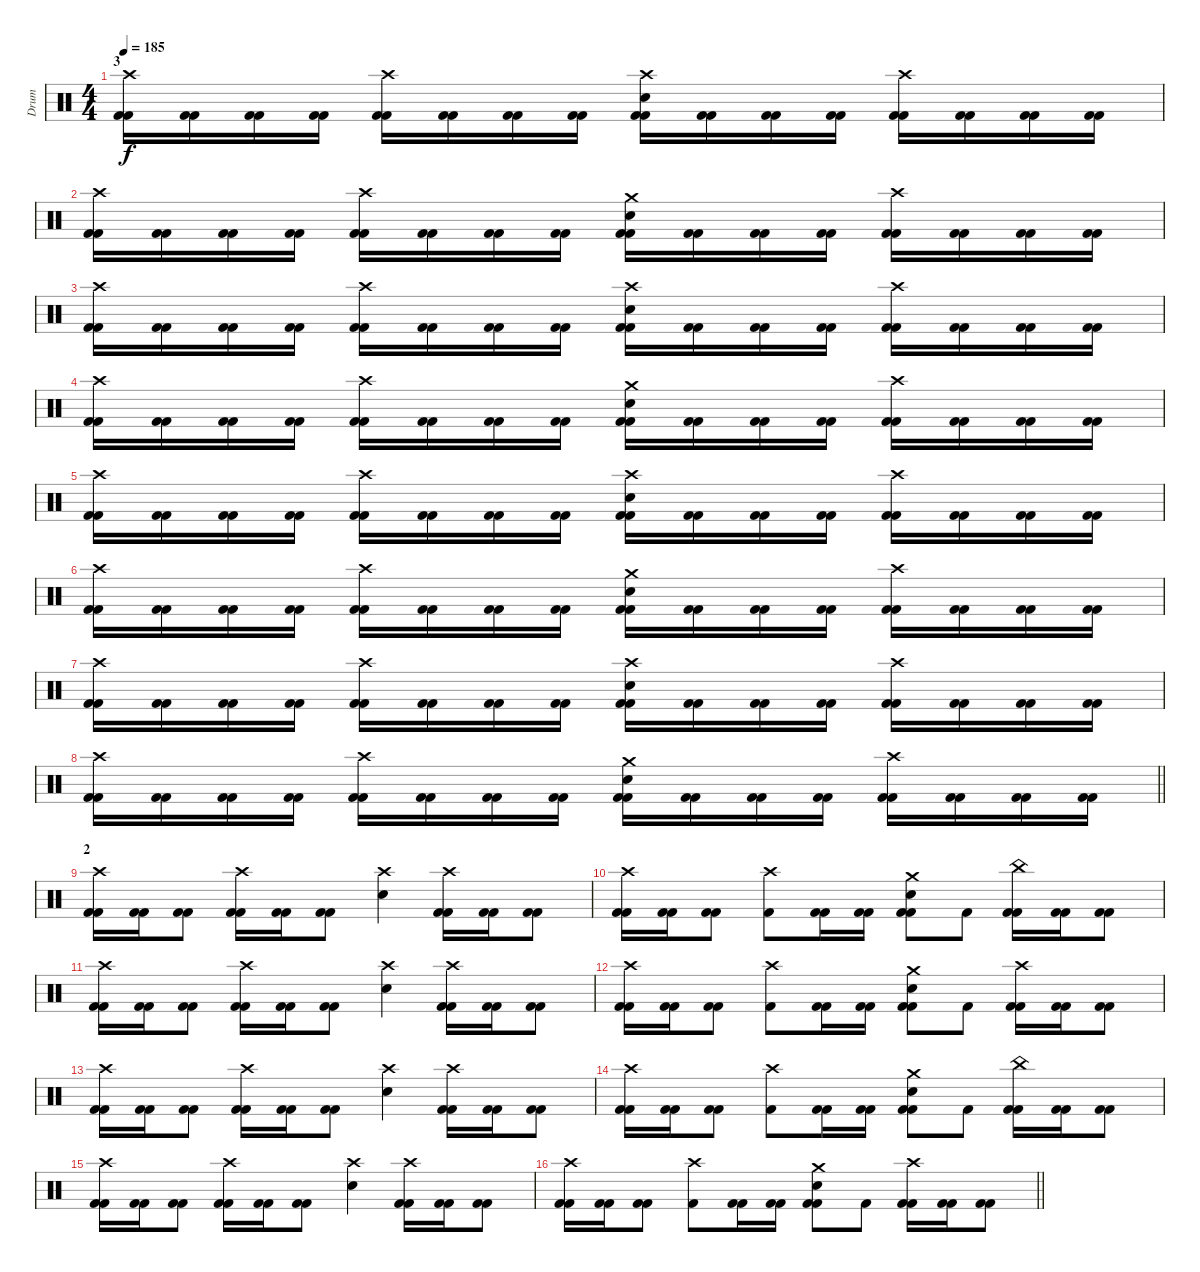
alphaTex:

\track ("Drum" "Drum") {instrument percussion}
\staff {score}
\articulation defaults
\ts (4 4)
\section ("" "3")
\tempo 185
\clef neutral
\ks c
("Crash high (hit)" "Kick (hit) 2" "Kick (hit) 2").16{dy f} ("Kick (hit) 2" "Kick (hit) 2").16 ("Kick (hit) 2" "Kick (hit) 2").16 ("Kick (hit) 2" "Kick (hit) 2").16 ("Crash high (hit)" "Kick (hit) 2" "Kick (hit) 2").16 ("Kick (hit) 2" "Kick (hit) 2").16 ("Kick (hit) 2" "Kick (hit) 2").16 ("Kick (hit) 2" "Kick (hit) 2").16 ("Crash high (hit)" "Electric Snare (hit)" "Kick (hit) 2" "Kick (hit) 2").16 ("Kick (hit) 2" "Kick (hit) 2").16 ("Kick (hit) 2" "Kick (hit) 2").16 ("Kick (hit) 2" "Kick (hit) 2").16 ("Crash high (hit)" "Kick (hit) 2" "Kick (hit) 2").16 ("Kick (hit) 2" "Kick (hit) 2").16 ("Kick (hit) 2" "Kick (hit) 2").16 ("Kick (hit) 2" "Kick (hit) 2").16 |
("Crash high (hit)" "Kick (hit) 2" "Kick (hit) 2").16 ("Kick (hit) 2" "Kick (hit) 2").16 ("Kick (hit) 2" "Kick (hit) 2").16 ("Kick (hit) 2" "Kick (hit) 2").16 ("Crash high (hit)" "Kick (hit) 2" "Kick (hit) 2").16 ("Kick (hit) 2" "Kick (hit) 2").16 ("Kick (hit) 2" "Kick (hit) 2").16 ("Kick (hit) 2" "Kick (hit) 2").16 ("Crash medium (hit)" "Electric Snare (hit)" "Kick (hit) 2" "Kick (hit) 2").16 ("Kick (hit) 2" "Kick (hit) 2").16 ("Kick (hit) 2" "Kick (hit) 2").16 ("Kick (hit) 2" "Kick (hit) 2").16 ("Crash high (hit)" "Kick (hit) 2" "Kick (hit) 2").16 ("Kick (hit) 2" "Kick (hit) 2").16 ("Kick (hit) 2" "Kick (hit) 2").16 ("Kick (hit) 2" "Kick (hit) 2").16 |
("Crash high (hit)" "Kick (hit) 2" "Kick (hit) 2").16 ("Kick (hit) 2" "Kick (hit) 2").16 ("Kick (hit) 2" "Kick (hit) 2").16 ("Kick (hit) 2" "Kick (hit) 2").16 ("Crash high (hit)" "Kick (hit) 2" "Kick (hit) 2").16 ("Kick (hit) 2" "Kick (hit) 2").16 ("Kick (hit) 2" "Kick (hit) 2").16 ("Kick (hit) 2" "Kick (hit) 2").16 ("Crash high (hit)" "Electric Snare (hit)" "Kick (hit) 2" "Kick (hit) 2").16 ("Kick (hit) 2" "Kick (hit) 2").16 ("Kick (hit) 2" "Kick (hit) 2").16 ("Kick (hit) 2" "Kick (hit) 2").16 ("Crash high (hit)" "Kick (hit) 2" "Kick (hit) 2").16 ("Kick (hit) 2" "Kick (hit) 2").16 ("Kick (hit) 2" "Kick (hit) 2").16 ("Kick (hit) 2" "Kick (hit) 2").16 |
("Crash high (hit)" "Kick (hit) 2" "Kick (hit) 2").16 ("Kick (hit) 2" "Kick (hit) 2").16 ("Kick (hit) 2" "Kick (hit) 2").16 ("Kick (hit) 2" "Kick (hit) 2").16 ("Crash high (hit)" "Kick (hit) 2" "Kick (hit) 2").16 ("Kick (hit) 2" "Kick (hit) 2").16 ("Kick (hit) 2" "Kick (hit) 2").16 ("Kick (hit) 2" "Kick (hit) 2").16 ("Crash medium (hit)" "Electric Snare (hit)" "Kick (hit) 2" "Kick (hit) 2").16 ("Kick (hit) 2" "Kick (hit) 2").16 ("Kick (hit) 2" "Kick (hit) 2").16 ("Kick (hit) 2" "Kick (hit) 2").16 ("Crash high (hit)" "Kick (hit) 2" "Kick (hit) 2").16 ("Kick (hit) 2" "Kick (hit) 2").16 ("Kick (hit) 2" "Kick (hit) 2").16 ("Kick (hit) 2" "Kick (hit) 2").16 |
("Crash high (hit)" "Kick (hit) 2" "Kick (hit) 2").16 ("Kick (hit) 2" "Kick (hit) 2").16 ("Kick (hit) 2" "Kick (hit) 2").16 ("Kick (hit) 2" "Kick (hit) 2").16 ("Crash high (hit)" "Kick (hit) 2" "Kick (hit) 2").16 ("Kick (hit) 2" "Kick (hit) 2").16 ("Kick (hit) 2" "Kick (hit) 2").16 ("Kick (hit) 2" "Kick (hit) 2").16 ("Crash high (hit)" "Electric Snare (hit)" "Kick (hit) 2" "Kick (hit) 2").16 ("Kick (hit) 2" "Kick (hit) 2").16 ("Kick (hit) 2" "Kick (hit) 2").16 ("Kick (hit) 2" "Kick (hit) 2").16 ("Crash high (hit)" "Kick (hit) 2" "Kick (hit) 2").16 ("Kick (hit) 2" "Kick (hit) 2").16 ("Kick (hit) 2" "Kick (hit) 2").16 ("Kick (hit) 2" "Kick (hit) 2").16 |
("Crash high (hit)" "Kick (hit) 2" "Kick (hit) 2").16 ("Kick (hit) 2" "Kick (hit) 2").16 ("Kick (hit) 2" "Kick (hit) 2").16 ("Kick (hit) 2" "Kick (hit) 2").16 ("Crash high (hit)" "Kick (hit) 2" "Kick (hit) 2").16 ("Kick (hit) 2" "Kick (hit) 2").16 ("Kick (hit) 2" "Kick (hit) 2").16 ("Kick (hit) 2" "Kick (hit) 2").16 ("Crash medium (hit)" "Electric Snare (hit)" "Kick (hit) 2" "Kick (hit) 2").16 ("Kick (hit) 2" "Kick (hit) 2").16 ("Kick (hit) 2" "Kick (hit) 2").16 ("Kick (hit) 2" "Kick (hit) 2").16 ("Crash high (hit)" "Kick (hit) 2" "Kick (hit) 2").16 ("Kick (hit) 2" "Kick (hit) 2").16 ("Kick (hit) 2" "Kick (hit) 2").16 ("Kick (hit) 2" "Kick (hit) 2").16 |
("Crash high (hit)" "Kick (hit) 2" "Kick (hit) 2").16 ("Kick (hit) 2" "Kick (hit) 2").16 ("Kick (hit) 2" "Kick (hit) 2").16 ("Kick (hit) 2" "Kick (hit) 2").16 ("Crash high (hit)" "Kick (hit) 2" "Kick (hit) 2").16 ("Kick (hit) 2" "Kick (hit) 2").16 ("Kick (hit) 2" "Kick (hit) 2").16 ("Kick (hit) 2" "Kick (hit) 2").16 ("Crash high (hit)" "Electric Snare (hit)" "Kick (hit) 2" "Kick (hit) 2").16 ("Kick (hit) 2" "Kick (hit) 2").16 ("Kick (hit) 2" "Kick (hit) 2").16 ("Kick (hit) 2" "Kick (hit) 2").16 ("Crash high (hit)" "Kick (hit) 2" "Kick (hit) 2").16 ("Kick (hit) 2" "Kick (hit) 2").16 ("Kick (hit) 2" "Kick (hit) 2").16 ("Kick (hit) 2" "Kick (hit) 2").16 |
\barLineRight lightlight
("Crash high (hit)" "Kick (hit) 2" "Kick (hit) 2").16 ("Kick (hit) 2" "Kick (hit) 2").16 ("Kick (hit) 2" "Kick (hit) 2").16 ("Kick (hit) 2" "Kick (hit) 2").16 ("Crash high (hit)" "Kick (hit) 2" "Kick (hit) 2").16 ("Kick (hit) 2" "Kick (hit) 2").16 ("Kick (hit) 2" "Kick (hit) 2").16 ("Kick (hit) 2" "Kick (hit) 2").16 ("Crash medium (hit)" "Electric Snare (hit)" "Kick (hit) 2" "Kick (hit) 2").16 ("Kick (hit) 2" "Kick (hit) 2").16 ("Kick (hit) 2" "Kick (hit) 2").16 ("Kick (hit) 2" "Kick (hit) 2").16 ("Crash high (hit)" "Kick (hit) 2" "Kick (hit) 2").16 ("Kick (hit) 2" "Kick (hit) 2").16 ("Kick (hit) 2" "Kick (hit) 2").16 ("Kick (hit) 2" "Kick (hit) 2").16 |
\section ("" "2")
("Crash high (hit)" "Kick (hit) 2" "Kick (hit) 2").16 ("Kick (hit) 2" "Kick (hit) 2").16 ("Kick (hit) 2" "Kick (hit) 2").8 ("Crash high (hit)" "Kick (hit) 2" "Kick (hit) 2").16 ("Kick (hit) 2" "Kick (hit) 2").16 ("Kick (hit) 2" "Kick (hit) 2").8 ("Crash high (hit)" "Electric Snare (hit)").4 ("Crash high (hit)" "Kick (hit) 2" "Kick (hit) 2").16 ("Kick (hit) 2" "Kick (hit) 2").16 ("Kick (hit) 2" "Kick (hit) 2").8 |
("Crash high (hit)" "Kick (hit) 2" "Kick (hit) 2").16 ("Kick (hit) 2" "Kick (hit) 2").16 ("Kick (hit) 2" "Kick (hit) 2").8 ("Crash high (hit)" "Kick (hit) 2").8 ("Kick (hit) 2" "Kick (hit) 2").16 ("Kick (hit) 2" "Kick (hit) 2").16 ("Crash medium (hit)" "Electric Snare (hit)" "Kick (hit) 2" "Kick (hit) 2").8 "Kick (hit) 2".8 ("China (hit)" "Kick (hit) 2" "Kick (hit) 2").16 ("Kick (hit) 2" "Kick (hit) 2").16 ("Kick (hit) 2" "Kick (hit) 2").8 |
("Crash high (hit)" "Kick (hit) 2" "Kick (hit) 2").16 ("Kick (hit) 2" "Kick (hit) 2").16 ("Kick (hit) 2" "Kick (hit) 2").8 ("Crash high (hit)" "Kick (hit) 2" "Kick (hit) 2").16 ("Kick (hit) 2" "Kick (hit) 2").16 ("Kick (hit) 2" "Kick (hit) 2").8 ("Crash high (hit)" "Electric Snare (hit)").4 ("Crash high (hit)" "Kick (hit) 2" "Kick (hit) 2").16 ("Kick (hit) 2" "Kick (hit) 2").16 ("Kick (hit) 2" "Kick (hit) 2").8 |
("Crash high (hit)" "Kick (hit) 2" "Kick (hit) 2").16 ("Kick (hit) 2" "Kick (hit) 2").16 ("Kick (hit) 2" "Kick (hit) 2").8 ("Crash high (hit)" "Kick (hit) 2").8 ("Kick (hit) 2" "Kick (hit) 2").16 ("Kick (hit) 2" "Kick (hit) 2").16 ("Crash medium (hit)" "Electric Snare (hit)" "Kick (hit) 2" "Kick (hit) 2").8 "Kick (hit) 2".8 ("Crash high (hit)" "Kick (hit) 2" "Kick (hit) 2").16 ("Kick (hit) 2" "Kick (hit) 2").16 ("Kick (hit) 2" "Kick (hit) 2").8 |
("Crash high (hit)" "Kick (hit) 2" "Kick (hit) 2").16 ("Kick (hit) 2" "Kick (hit) 2").16 ("Kick (hit) 2" "Kick (hit) 2").8 ("Crash high (hit)" "Kick (hit) 2" "Kick (hit) 2").16 ("Kick (hit) 2" "Kick (hit) 2").16 ("Kick (hit) 2" "Kick (hit) 2").8 ("Crash high (hit)" "Electric Snare (hit)").4 ("Crash high (hit)" "Kick (hit) 2" "Kick (hit) 2").16 ("Kick (hit) 2" "Kick (hit) 2").16 ("Kick (hit) 2" "Kick (hit) 2").8 |
("Crash high (hit)" "Kick (hit) 2" "Kick (hit) 2").16 ("Kick (hit) 2" "Kick (hit) 2").16 ("Kick (hit) 2" "Kick (hit) 2").8 ("Crash high (hit)" "Kick (hit) 2").8 ("Kick (hit) 2" "Kick (hit) 2").16 ("Kick (hit) 2" "Kick (hit) 2").16 ("Crash medium (hit)" "Electric Snare (hit)" "Kick (hit) 2" "Kick (hit) 2").8 "Kick (hit) 2".8 ("China (hit)" "Kick (hit) 2" "Kick (hit) 2").16 ("Kick (hit) 2" "Kick (hit) 2").16 ("Kick (hit) 2" "Kick (hit) 2").8 |
("Crash high (hit)" "Kick (hit) 2" "Kick (hit) 2").16 ("Kick (hit) 2" "Kick (hit) 2").16 ("Kick (hit) 2" "Kick (hit) 2").8 ("Crash high (hit)" "Kick (hit) 2" "Kick (hit) 2").16 ("Kick (hit) 2" "Kick (hit) 2").16 ("Kick (hit) 2" "Kick (hit) 2").8 ("Crash high (hit)" "Electric Snare (hit)").4 ("Crash high (hit)" "Kick (hit) 2" "Kick (hit) 2").16 ("Kick (hit) 2" "Kick (hit) 2").16 ("Kick (hit) 2" "Kick (hit) 2").8 |
\barLineRight lightlight
("Crash high (hit)" "Kick (hit) 2" "Kick (hit) 2").16 ("Kick (hit) 2" "Kick (hit) 2").16 ("Kick (hit) 2" "Kick (hit) 2").8 ("Crash high (hit)" "Kick (hit) 2").8 ("Kick (hit) 2" "Kick (hit) 2").16 ("Kick (hit) 2" "Kick (hit) 2").16 ("Crash medium (hit)" "Electric Snare (hit)" "Kick (hit) 2" "Kick (hit) 2").8 "Kick (hit) 2".8 ("Crash high (hit)" "Kick (hit) 2" "Kick (hit) 2").16 ("Kick (hit) 2" "Kick (hit) 2").16 ("Kick (hit) 2" "Kick (hit) 2").8
